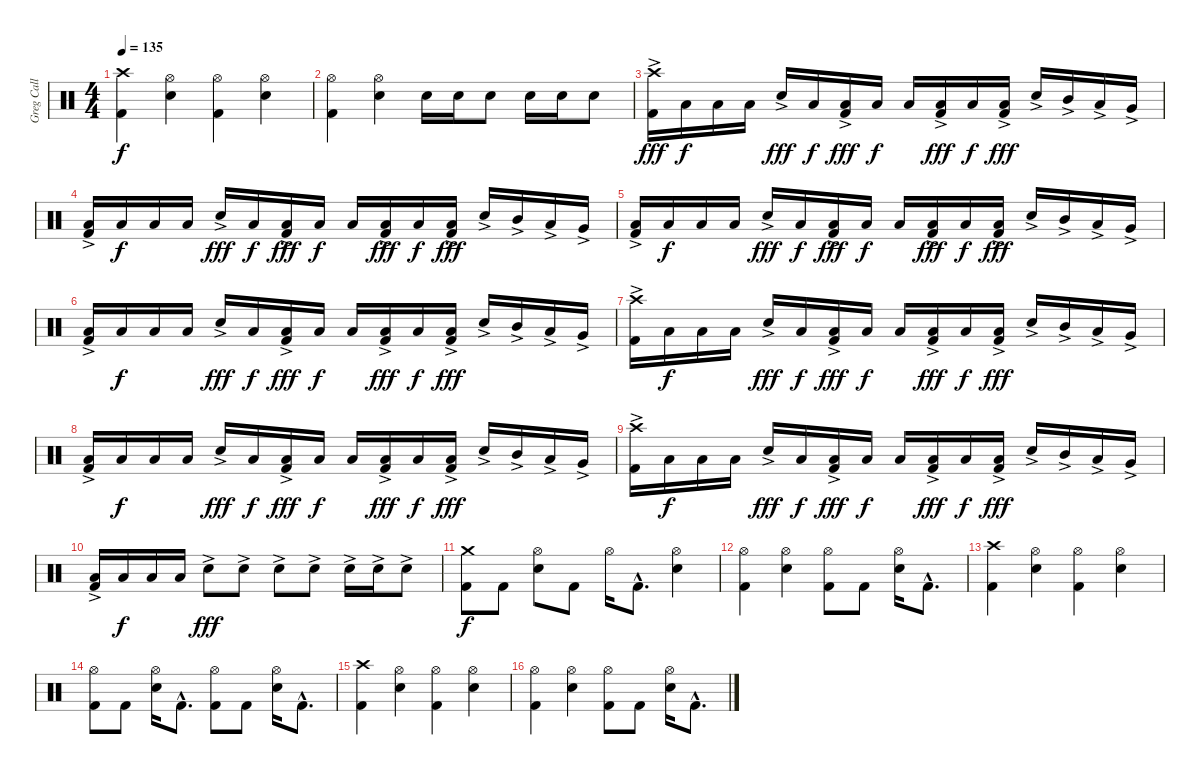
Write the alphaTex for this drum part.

\track ("Greg Call (Drums)" "Greg Call ") {instrument percussion}
\staff {score}
\articulation defaults
\ts (4 4)
\tempo 135
\clef neutral
\ks c
("Crash high (hit)" "Kick (hit) 2").4{dy f} ("Hi-Hat (open)" "Snare (hit) 2").4 ("Hi-Hat (open)" "Kick (hit) 2").4 ("Hi-Hat (open)" "Snare (hit) 2").4 |
("Hi-Hat (open)" "Kick (hit) 2").4 ("Hi-Hat (open)" "Snare (hit) 2").4 "Snare (hit) 2".16 "Snare (hit) 2".16 "Snare (hit) 2".8 "Snare (hit) 2".16 "Snare (hit) 2".16 "Snare (hit) 2".8 |
("Crash high (hit)" "Kick (hit) 2"{ac}).16{dy fff} "Low Floor Tom (hit)".16{dy f} "Low Floor Tom (hit)".16 "Low Floor Tom (hit)".16 "Snare (hit) 2"{ac}.16{dy fff} "Low Floor Tom (hit)".16{dy f} ("Kick (hit) 2" "Low Floor Tom (hit)"{ac}).16{dy fff} "Low Floor Tom (hit)".16{dy f} "Low Floor Tom (hit)".16 ("Kick (hit) 2" "Low Floor Tom (hit)"{ac}).16{dy fff} "Low Floor Tom (hit)".16{dy f} ("Kick (hit) 2" "Low Floor Tom (hit)"{ac}).16{dy fff} "Snare (hit) 2"{ac}.16 "Mid Tom (hit)"{ac}.16 "Low Tom (hit)"{ac}.16 "Very Low Tom (hit)"{ac}.16 |
("Low Floor Tom (hit)" "Kick (hit) 2"{ac}).16 "Low Floor Tom (hit)".16{dy f} "Low Floor Tom (hit)".16 "Low Floor Tom (hit)".16 "Snare (hit) 2"{ac}.16{dy fff} "Low Floor Tom (hit)".16{dy f} ("Kick (hit) 2" "Low Floor Tom (hit)"{ac}).16{dy fff} "Low Floor Tom (hit)".16{dy f} "Low Floor Tom (hit)".16 ("Kick (hit) 2" "Low Floor Tom (hit)"{ac}).16{dy fff} "Low Floor Tom (hit)".16{dy f} ("Kick (hit) 2" "Low Floor Tom (hit)"{ac}).16{dy fff} "Snare (hit) 2"{ac}.16 "Mid Tom (hit)"{ac}.16 "Low Tom (hit)"{ac}.16 "Very Low Tom (hit)"{ac}.16 |
("Low Floor Tom (hit)" "Kick (hit) 2"{ac}).16 "Low Floor Tom (hit)".16{dy f} "Low Floor Tom (hit)".16 "Low Floor Tom (hit)".16 "Snare (hit) 2"{ac}.16{dy fff} "Low Floor Tom (hit)".16{dy f} ("Kick (hit) 2" "Low Floor Tom (hit)"{ac}).16{dy fff} "Low Floor Tom (hit)".16{dy f} "Low Floor Tom (hit)".16 ("Kick (hit) 2" "Low Floor Tom (hit)"{ac}).16{dy fff} "Low Floor Tom (hit)".16{dy f} ("Kick (hit) 2" "Low Floor Tom (hit)"{ac}).16{dy fff} "Snare (hit) 2"{ac}.16 "Mid Tom (hit)"{ac}.16 "Low Tom (hit)"{ac}.16 "Very Low Tom (hit)"{ac}.16 |
("Low Floor Tom (hit)" "Kick (hit) 2"{ac}).16 "Low Floor Tom (hit)".16{dy f} "Low Floor Tom (hit)".16 "Low Floor Tom (hit)".16 "Snare (hit) 2"{ac}.16{dy fff} "Low Floor Tom (hit)".16{dy f} ("Kick (hit) 2" "Low Floor Tom (hit)"{ac}).16{dy fff} "Low Floor Tom (hit)".16{dy f} "Low Floor Tom (hit)".16 ("Kick (hit) 2" "Low Floor Tom (hit)"{ac}).16{dy fff} "Low Floor Tom (hit)".16{dy f} ("Kick (hit) 2" "Low Floor Tom (hit)"{ac}).16{dy fff} "Snare (hit) 2"{ac}.16 "Mid Tom (hit)"{ac}.16 "Low Tom (hit)"{ac}.16 "Very Low Tom (hit)"{ac}.16 |
("Crash high (hit)" "Kick (hit) 2"{ac}).16 "Low Floor Tom (hit)".16{dy f} "Low Floor Tom (hit)".16 "Low Floor Tom (hit)".16 "Snare (hit) 2"{ac}.16{dy fff} "Low Floor Tom (hit)".16{dy f} ("Kick (hit) 2" "Low Floor Tom (hit)"{ac}).16{dy fff} "Low Floor Tom (hit)".16{dy f} "Low Floor Tom (hit)".16 ("Kick (hit) 2" "Low Floor Tom (hit)"{ac}).16{dy fff} "Low Floor Tom (hit)".16{dy f} ("Kick (hit) 2" "Low Floor Tom (hit)"{ac}).16{dy fff} "Snare (hit) 2"{ac}.16 "Mid Tom (hit)"{ac}.16 "Low Tom (hit)"{ac}.16 "Very Low Tom (hit)"{ac}.16 |
("Low Floor Tom (hit)" "Kick (hit) 2"{ac}).16 "Low Floor Tom (hit)".16{dy f} "Low Floor Tom (hit)".16 "Low Floor Tom (hit)".16 "Snare (hit) 2"{ac}.16{dy fff} "Low Floor Tom (hit)".16{dy f} ("Kick (hit) 2" "Low Floor Tom (hit)"{ac}).16{dy fff} "Low Floor Tom (hit)".16{dy f} "Low Floor Tom (hit)".16 ("Kick (hit) 2" "Low Floor Tom (hit)"{ac}).16{dy fff} "Low Floor Tom (hit)".16{dy f} ("Kick (hit) 2" "Low Floor Tom (hit)"{ac}).16{dy fff} "Snare (hit) 2"{ac}.16 "Mid Tom (hit)"{ac}.16 "Low Tom (hit)"{ac}.16 "Very Low Tom (hit)"{ac}.16 |
("Crash high (hit)" "Kick (hit) 2"{ac}).16 "Low Floor Tom (hit)".16{dy f} "Low Floor Tom (hit)".16 "Low Floor Tom (hit)".16 "Snare (hit) 2"{ac}.16{dy fff} "Low Floor Tom (hit)".16{dy f} ("Kick (hit) 2" "Low Floor Tom (hit)"{ac}).16{dy fff} "Low Floor Tom (hit)".16{dy f} "Low Floor Tom (hit)".16 ("Kick (hit) 2" "Low Floor Tom (hit)"{ac}).16{dy fff} "Low Floor Tom (hit)".16{dy f} ("Kick (hit) 2" "Low Floor Tom (hit)"{ac}).16{dy fff} "Snare (hit) 2"{ac}.16 "Mid Tom (hit)"{ac}.16 "Low Tom (hit)"{ac}.16 "Very Low Tom (hit)"{ac}.16 |
("Low Floor Tom (hit)" "Kick (hit) 2"{ac}).16 "Low Floor Tom (hit)".16{dy f} "Low Floor Tom (hit)".16 "Low Floor Tom (hit)".16 "Snare (hit) 2"{ac}.8{dy fff} "Snare (hit) 2"{ac}.8 "Snare (hit) 2"{ac}.8 "Snare (hit) 2"{ac}.8 "Snare (hit) 2"{ac}.16 "Snare (hit) 2"{ac}.16 "Snare (hit) 2"{ac}.8 |
("Crash medium (hit)" "Kick (hit) 2").8{dy f} "Kick (hit) 2".8 ("Hi-Hat (open)" "Snare (hit) 2").8 "Kick (hit) 2".8 "Hi-Hat (open)".16 "Kick (hit) 2"{hac}.8{d} ("Hi-Hat (open)" "Snare (hit) 2").4 |
("Hi-Hat (open)" "Kick (hit) 2").4 ("Hi-Hat (open)" "Snare (hit) 2").4 ("Hi-Hat (open)" "Kick (hit) 2").8 "Kick (hit) 2".8 ("Hi-Hat (open)" "Snare (hit) 2").16 "Kick (hit) 2"{hac}.8{d} |
("Crash high (hit)" "Kick (hit) 2").4 ("Hi-Hat (open)" "Snare (hit) 2").4 ("Hi-Hat (open)" "Kick (hit) 2").4 ("Hi-Hat (open)" "Snare (hit) 2").4 |
("Hi-Hat (open)" "Kick (hit) 2").8 "Kick (hit) 2".8 ("Hi-Hat (open)" "Snare (hit) 2").16 "Kick (hit) 2"{hac}.8{d} ("Hi-Hat (open)" "Kick (hit) 2").8 "Kick (hit) 2".8 ("Hi-Hat (open)" "Snare (hit) 2").16 "Kick (hit) 2"{hac}.8{d} |
("Crash high (hit)" "Kick (hit) 2").4 ("Hi-Hat (open)" "Snare (hit) 2").4 ("Hi-Hat (open)" "Kick (hit) 2").4 ("Hi-Hat (open)" "Snare (hit) 2").4 |
("Hi-Hat (open)" "Kick (hit) 2").4 ("Hi-Hat (open)" "Snare (hit) 2").4 ("Hi-Hat (open)" "Kick (hit) 2").8 "Kick (hit) 2".8 ("Hi-Hat (open)" "Snare (hit) 2").16 "Kick (hit) 2"{hac}.8{d}
